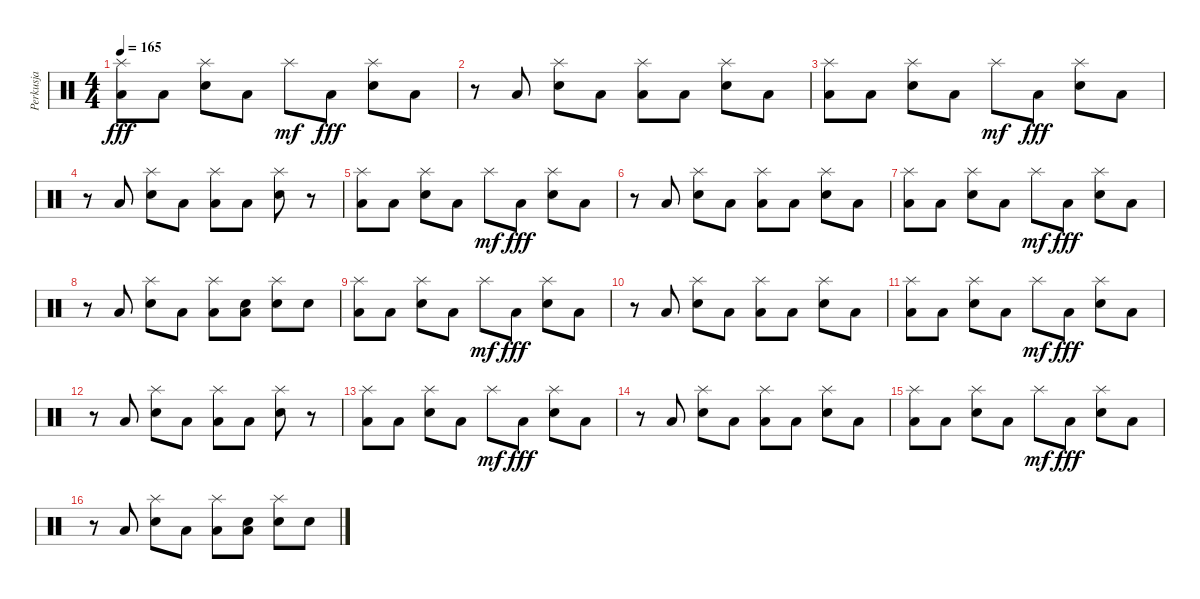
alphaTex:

\track ("Perkusja" "Perkusja") {instrument percussion}
\staff {score}
\articulation defaults
\ts (4 4)
\tempo 165
\clef neutral
\ks c
("Splash (hit)" "Low Tom (hit)").8{dy fff} "Low Tom (hit)".8 ("Splash (hit)" "Electric Snare (hit)").8 "Low Tom (hit)".8 "Splash (hit)".8{dy mf} "Low Tom (hit)".8{dy fff} ("Splash (hit)" "Electric Snare (hit)").8 "Low Tom (hit)".8 |
r.8 "Low Tom (hit)".8 ("Splash (hit)" "Electric Snare (hit)").8 "Low Tom (hit)".8 ("Splash (hit)" "Low Tom (hit)").8 "Low Tom (hit)".8 ("Splash (hit)" "Electric Snare (hit)").8 "Low Tom (hit)".8 |
("Splash (hit)" "Low Tom (hit)").8 "Low Tom (hit)".8 ("Splash (hit)" "Electric Snare (hit)").8 "Low Tom (hit)".8 "Splash (hit)".8{dy mf} "Low Tom (hit)".8{dy fff} ("Splash (hit)" "Electric Snare (hit)").8 "Low Tom (hit)".8 |
r.8 "Low Tom (hit)".8 ("Splash (hit)" "Electric Snare (hit)").8 "Low Tom (hit)".8 ("Splash (hit)" "Low Tom (hit)").8 "Low Tom (hit)".8 ("Splash (hit)" "Electric Snare (hit)").8 r.8 |
("Splash (hit)" "Low Tom (hit)").8 "Low Tom (hit)".8 ("Splash (hit)" "Electric Snare (hit)").8 "Low Tom (hit)".8 "Splash (hit)".8{dy mf} "Low Tom (hit)".8{dy fff} ("Splash (hit)" "Electric Snare (hit)").8 "Low Tom (hit)".8 |
r.8 "Low Tom (hit)".8 ("Splash (hit)" "Electric Snare (hit)").8 "Low Tom (hit)".8 ("Splash (hit)" "Low Tom (hit)").8 "Low Tom (hit)".8 ("Splash (hit)" "Electric Snare (hit)").8 "Low Tom (hit)".8 |
("Splash (hit)" "Low Tom (hit)").8 "Low Tom (hit)".8 ("Splash (hit)" "Electric Snare (hit)").8 "Low Tom (hit)".8 "Splash (hit)".8{dy mf} "Low Tom (hit)".8{dy fff} ("Splash (hit)" "Electric Snare (hit)").8 "Low Tom (hit)".8 |
r.8 "Low Tom (hit)".8 ("Splash (hit)" "Electric Snare (hit)").8 "Low Tom (hit)".8 ("Splash (hit)" "Low Tom (hit)").8 ("Electric Snare (hit)" "Low Tom (hit)").8 ("Splash (hit)" "Electric Snare (hit)").8 "Electric Snare (hit)".8 |
("Splash (hit)" "Low Tom (hit)").8 "Low Tom (hit)".8 ("Splash (hit)" "Electric Snare (hit)").8 "Low Tom (hit)".8 "Splash (hit)".8{dy mf} "Low Tom (hit)".8{dy fff} ("Splash (hit)" "Electric Snare (hit)").8 "Low Tom (hit)".8 |
r.8 "Low Tom (hit)".8 ("Splash (hit)" "Electric Snare (hit)").8 "Low Tom (hit)".8 ("Splash (hit)" "Low Tom (hit)").8 "Low Tom (hit)".8 ("Splash (hit)" "Electric Snare (hit)").8 "Low Tom (hit)".8 |
("Splash (hit)" "Low Tom (hit)").8 "Low Tom (hit)".8 ("Splash (hit)" "Electric Snare (hit)").8 "Low Tom (hit)".8 "Splash (hit)".8{dy mf} "Low Tom (hit)".8{dy fff} ("Splash (hit)" "Electric Snare (hit)").8 "Low Tom (hit)".8 |
r.8 "Low Tom (hit)".8 ("Splash (hit)" "Electric Snare (hit)").8 "Low Tom (hit)".8 ("Splash (hit)" "Low Tom (hit)").8 "Low Tom (hit)".8 ("Splash (hit)" "Electric Snare (hit)").8 r.8 |
("Splash (hit)" "Low Tom (hit)").8 "Low Tom (hit)".8 ("Splash (hit)" "Electric Snare (hit)").8 "Low Tom (hit)".8 "Splash (hit)".8{dy mf} "Low Tom (hit)".8{dy fff} ("Splash (hit)" "Electric Snare (hit)").8 "Low Tom (hit)".8 |
r.8 "Low Tom (hit)".8 ("Splash (hit)" "Electric Snare (hit)").8 "Low Tom (hit)".8 ("Splash (hit)" "Low Tom (hit)").8 "Low Tom (hit)".8 ("Splash (hit)" "Electric Snare (hit)").8 "Low Tom (hit)".8 |
("Splash (hit)" "Low Tom (hit)").8 "Low Tom (hit)".8 ("Splash (hit)" "Electric Snare (hit)").8 "Low Tom (hit)".8 "Splash (hit)".8{dy mf} "Low Tom (hit)".8{dy fff} ("Splash (hit)" "Electric Snare (hit)").8 "Low Tom (hit)".8 |
r.8 "Low Tom (hit)".8 ("Splash (hit)" "Electric Snare (hit)").8 "Low Tom (hit)".8 ("Splash (hit)" "Low Tom (hit)").8 ("Electric Snare (hit)" "Low Tom (hit)").8 ("Splash (hit)" "Electric Snare (hit)").8 "Electric Snare (hit)".8
